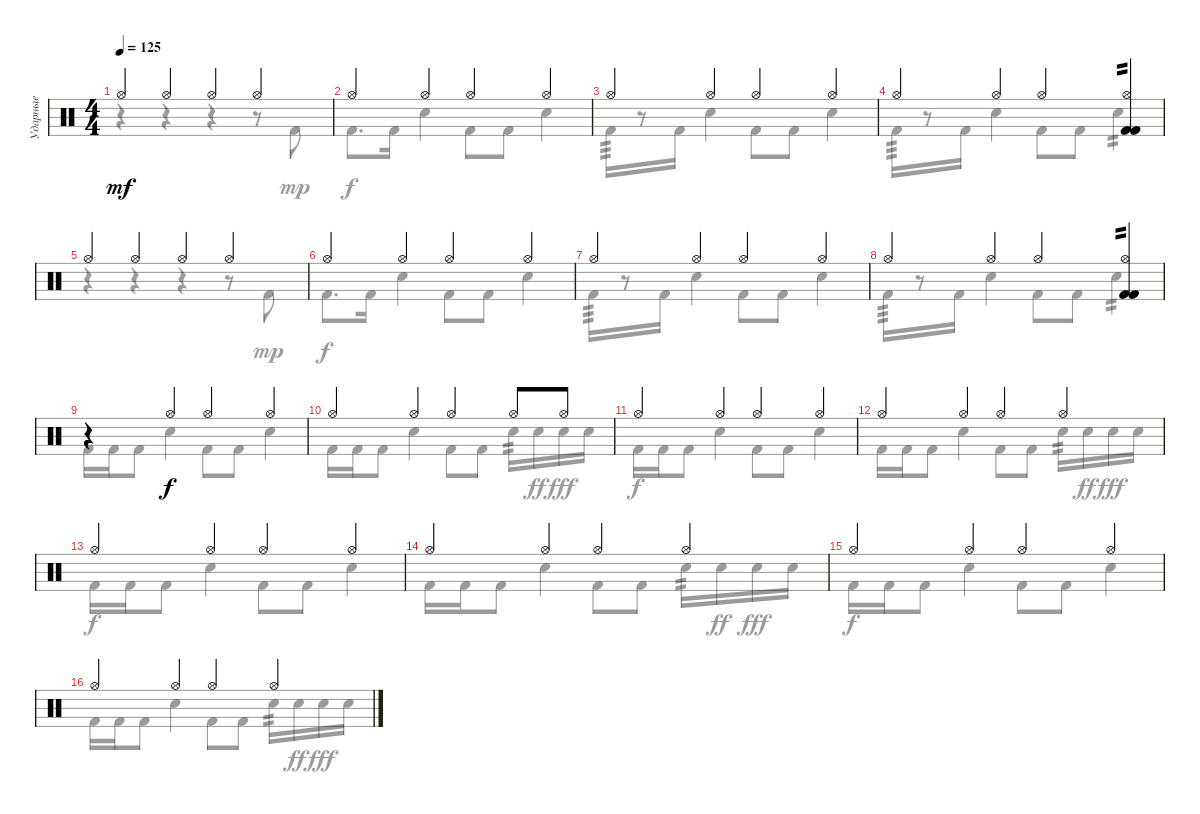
\track ("Ударные" "Ударные") {instrument percussion}
\staff {score}
\articulation defaults
\voice
\ts (4 4)
\tempo 125
\clef neutral
\ks c "Hi-Hat (open)".4{dy mf} "Hi-Hat (open)".4 "Hi-Hat (open)".4 "Hi-Hat (open)".4
|
"Hi-Hat (open)".4 "Hi-Hat (open)".4 "Hi-Hat (open)".4 "Hi-Hat (open)".4 |
"Hi-Hat (open)".4 "Hi-Hat (open)".4 "Hi-Hat (open)".4 "Hi-Hat (open)".4 |
"Hi-Hat (open)".4 "Hi-Hat (open)".4 "Hi-Hat (open)".4 ("Hi-Hat (open)" "Kick (hit) 2" "Kick (hit) 2").4{tp 2} |
"Hi-Hat (open)".4 "Hi-Hat (open)".4 "Hi-Hat (open)".4 "Hi-Hat (open)".4 |
"Hi-Hat (open)".4 "Hi-Hat (open)".4 "Hi-Hat (open)".4 "Hi-Hat (open)".4 |
"Hi-Hat (open)".4 "Hi-Hat (open)".4 "Hi-Hat (open)".4 "Hi-Hat (open)".4 |
"Hi-Hat (open)".4 "Hi-Hat (open)".4 "Hi-Hat (open)".4 ("Hi-Hat (open)" "Kick (hit) 2" "Kick (hit) 2").4{tp 2} |
r.4 "Hi-Hat (open)".4{dy f} "Hi-Hat (open)".4 "Hi-Hat (open)".4 |
"Hi-Hat (open)".4 "Hi-Hat (open)".4 "Hi-Hat (open)".4 "Hi-Hat (open)".8 "Hi-Hat (open)".8 |
"Hi-Hat (open)".4 "Hi-Hat (open)".4 "Hi-Hat (open)".4 "Hi-Hat (open)".4 |
"Hi-Hat (open)".4 "Hi-Hat (open)".4 "Hi-Hat (open)".4 "Hi-Hat (open)".4 |
"Hi-Hat (open)".4 "Hi-Hat (open)".4 "Hi-Hat (open)".4 "Hi-Hat (open)".4 |
"Hi-Hat (open)".4 "Hi-Hat (open)".4 "Hi-Hat (open)".4 "Hi-Hat (open)".4 |
"Hi-Hat (open)".4 "Hi-Hat (open)".4 "Hi-Hat (open)".4 "Hi-Hat (open)".4 |
"Hi-Hat (open)".4 "Hi-Hat (open)".4 "Hi-Hat (open)".4 "Hi-Hat (open)".4
\voice
\clef neutral
\ottava regular
\simile none
\ks c
r.4{dy mp} r.4 r.4 r.8 "Kick (hit) 2".8 |
"Kick (hit) 2".8{d dy f} "Kick (hit) 2".16 "Electric Snare (hit)".4 "Kick (hit) 2".8 "Kick (hit) 2".8 "Electric Snare (hit)".4 |
"Kick (hit) 2".16{tp 3} r.8 "Kick (hit) 2".16 "Electric Snare (hit)".4 "Kick (hit) 2".8 "Kick (hit) 2".8 "Electric Snare (hit)".4 |
"Kick (hit) 2".16{tp 3} r.8 "Kick (hit) 2".16 "Electric Snare (hit)".4 "Kick (hit) 2".8 "Kick (hit) 2".8 "Electric Snare (hit)".4{tp 2} |
r.4 r.4 r.4 r.8 "Kick (hit) 2".8{dy mp} |
"Kick (hit) 2".8{d dy f} "Kick (hit) 2".16 "Electric Snare (hit)".4 "Kick (hit) 2".8 "Kick (hit) 2".8 "Electric Snare (hit)".4 |
"Kick (hit) 2".16{tp 3} r.8 "Kick (hit) 2".16 "Electric Snare (hit)".4 "Kick (hit) 2".8 "Kick (hit) 2".8 "Electric Snare (hit)".4 |
"Kick (hit) 2".16{tp 3} r.8 "Kick (hit) 2".16 "Electric Snare (hit)".4 "Kick (hit) 2".8 "Kick (hit) 2".8 "Electric Snare (hit)".4{tp 2} |
"Kick (hit) 2".16 "Kick (hit) 2".16 "Kick (hit) 2".8 "Electric Snare (hit)".4 "Kick (hit) 2".8 "Kick (hit) 2".8 "Electric Snare (hit)".4 |
"Kick (hit) 2".16 "Kick (hit) 2".16 "Kick (hit) 2".8 "Electric Snare (hit)".4 "Kick (hit) 2".8 "Kick (hit) 2".8 "Electric Snare (hit)".16{tp 2} "Electric Snare (hit)".16{dy ff} "Electric Snare (hit)".16{dy fff} "Electric Snare (hit)".16 |
"Kick (hit) 2".16{dy f} "Kick (hit) 2".16 "Kick (hit) 2".8 "Electric Snare (hit)".4 "Kick (hit) 2".8 "Kick (hit) 2".8 "Electric Snare (hit)".4 |
"Kick (hit) 2".16 "Kick (hit) 2".16 "Kick (hit) 2".8 "Electric Snare (hit)".4 "Kick (hit) 2".8 "Kick (hit) 2".8 "Electric Snare (hit)".16{tp 2} "Electric Snare (hit)".16{dy ff} "Electric Snare (hit)".16{dy fff} "Electric Snare (hit)".16 |
"Kick (hit) 2".16{dy f} "Kick (hit) 2".16 "Kick (hit) 2".8 "Electric Snare (hit)".4 "Kick (hit) 2".8 "Kick (hit) 2".8 "Electric Snare (hit)".4 |
"Kick (hit) 2".16 "Kick (hit) 2".16 "Kick (hit) 2".8 "Electric Snare (hit)".4 "Kick (hit) 2".8 "Kick (hit) 2".8 "Electric Snare (hit)".16{tp 2} "Electric Snare (hit)".16{dy ff} "Electric Snare (hit)".16{dy fff} "Electric Snare (hit)".16 |
"Kick (hit) 2".16{dy f} "Kick (hit) 2".16 "Kick (hit) 2".8 "Electric Snare (hit)".4 "Kick (hit) 2".8 "Kick (hit) 2".8 "Electric Snare (hit)".4 |
"Kick (hit) 2".16 "Kick (hit) 2".16 "Kick (hit) 2".8 "Electric Snare (hit)".4 "Kick (hit) 2".8 "Kick (hit) 2".8 "Electric Snare (hit)".16{tp 2} "Electric Snare (hit)".16{dy ff} "Electric Snare (hit)".16{dy fff} "Electric Snare (hit)".16
